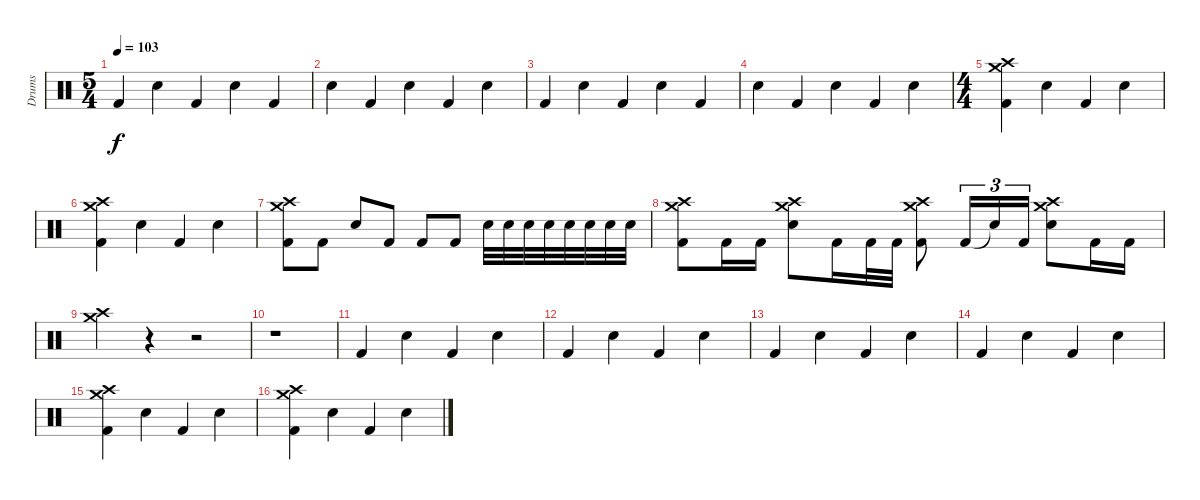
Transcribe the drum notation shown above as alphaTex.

\track ("Drums" "Drums") {instrument percussion}
\staff {score}
\articulation defaults
\ts (5 4)
\tempo 103
\clef neutral
\ks c "Kick (hit) 2".4{dy f} "Snare (hit) 2".4 "Kick (hit) 2".4 "Snare (hit) 2".4 "Kick (hit) 2".4
|
"Snare (hit) 2".4 "Kick (hit) 2".4 "Snare (hit) 2".4 "Kick (hit) 2".4 "Snare (hit) 2".4 |
"Kick (hit) 2".4 "Snare (hit) 2".4 "Kick (hit) 2".4 "Snare (hit) 2".4 "Kick (hit) 2".4 |
"Snare (hit) 2".4 "Kick (hit) 2".4 "Snare (hit) 2".4 "Kick (hit) 2".4 "Snare (hit) 2".4 |
\ts (4 4)
("Crash high (hit)" "Crash medium (hit)" "Kick (hit) 2").4 "Snare (hit) 2".4 "Kick (hit) 2".4 "Snare (hit) 2".4 |
("Crash high (hit)" "Crash medium (hit)" "Kick (hit) 2").4 "Snare (hit) 2".4 "Kick (hit) 2".4 "Snare (hit) 2".4 |
("Crash high (hit)" "Crash medium (hit)" "Kick (hit) 2").8 "Kick (hit) 2".8 "Snare (hit) 2".8 "Kick (hit) 2".8 "Kick (hit) 2".8 "Kick (hit) 2".8 "Snare (hit) 2".32 "Snare (hit) 2".32 "Snare (hit) 2".32 "Snare (hit) 2".32 "Snare (hit) 2".32 "Snare (hit) 2".32 "Snare (hit) 2".32 "Snare (hit) 2".32 |
("Crash high (hit)" "Crash medium (hit)" "Kick (hit) 2").8 "Kick (hit) 2".16 "Kick (hit) 2".16 ("Crash high (hit)" "Crash medium (hit)" "Snare (hit) 2").8 "Kick (hit) 2".16 "Kick (hit) 2".32 "Kick (hit) 2".32 ("Crash high (hit)" "Crash medium (hit)" "Kick (hit) 2").8 "Kick (hit) 2".16{tu (3 2)} "Snare (hit)"{t}.16{tu (3 2)} "Kick (hit) 2".16{tu (3 2)} ("Crash high (hit)" "Crash medium (hit)" "Snare (hit) 2").8 "Kick (hit) 2".16 "Kick (hit) 2".16 |
("Crash high (hit)" "Crash medium (hit)").4 r.4 r.2 |
r.1 |
"Kick (hit) 2".4 "Snare (hit) 2".4 "Kick (hit) 2".4 "Snare (hit) 2".4 |
"Kick (hit) 2".4 "Snare (hit) 2".4 "Kick (hit) 2".4 "Snare (hit) 2".4 |
"Kick (hit) 2".4 "Snare (hit) 2".4 "Kick (hit) 2".4 "Snare (hit) 2".4 |
"Kick (hit) 2".4 "Snare (hit) 2".4 "Kick (hit) 2".4 "Snare (hit) 2".4 |
("Crash high (hit)" "Crash medium (hit)" "Kick (hit) 2").4 "Snare (hit) 2".4 "Kick (hit) 2".4 "Snare (hit) 2".4 |
("Crash high (hit)" "Crash medium (hit)" "Kick (hit) 2").4 "Snare (hit) 2".4 "Kick (hit) 2".4 "Snare (hit) 2".4
